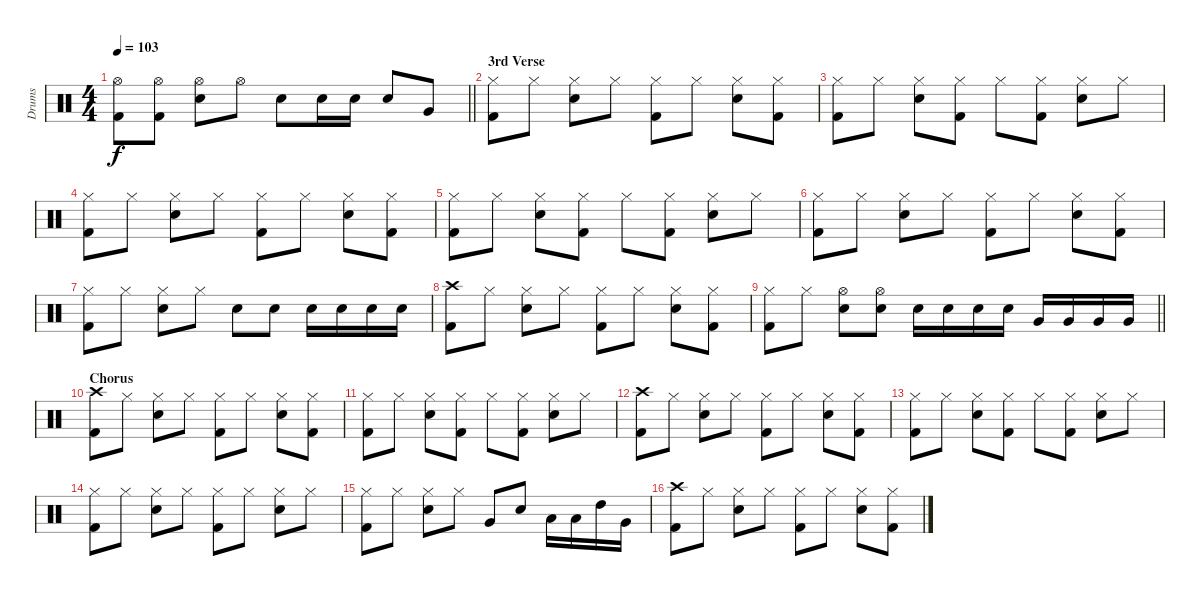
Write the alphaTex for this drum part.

\track ("Drums" "Drums") {instrument percussion}
\staff {score}
\articulation defaults
\ts (4 4)
\tempo 103
\clef neutral
\barLineRight lightlight
\ks c
("Hi-Hat (open)" "Kick (hit) 2").8{dy f} ("Hi-Hat (open)" "Kick (hit) 2").8 ("Hi-Hat (open)" "Snare (hit) 2").8 "Hi-Hat (open)".8 "Snare (hit) 2".8 "Snare (hit) 2".16 "Snare (hit) 2".16 "Snare (hit) 2".8 "Very Low Tom (hit)".8 |
\section ("" "3rd Verse")
("Hi-Hat (closed)" "Kick (hit) 2").8 "Hi-Hat (closed)".8 ("Hi-Hat (closed)" "Snare (hit) 2").8 "Hi-Hat (closed)".8 ("Hi-Hat (closed)" "Kick (hit) 2").8 "Hi-Hat (closed)".8 ("Hi-Hat (closed)" "Snare (hit) 2").8 ("Hi-Hat (closed)" "Kick (hit) 2").8 |
("Hi-Hat (closed)" "Kick (hit) 2").8 "Hi-Hat (closed)".8 ("Hi-Hat (closed)" "Snare (hit) 2").8 ("Hi-Hat (closed)" "Kick (hit) 2").8 "Hi-Hat (closed)".8 ("Hi-Hat (closed)" "Kick (hit) 2").8 ("Hi-Hat (closed)" "Snare (hit) 2").8 "Hi-Hat (closed)".8 |
("Hi-Hat (closed)" "Kick (hit) 2").8 "Hi-Hat (closed)".8 ("Hi-Hat (closed)" "Snare (hit) 2").8 "Hi-Hat (closed)".8 ("Hi-Hat (closed)" "Kick (hit) 2").8 "Hi-Hat (closed)".8 ("Hi-Hat (closed)" "Snare (hit) 2").8 ("Hi-Hat (closed)" "Kick (hit) 2").8 |
("Hi-Hat (closed)" "Kick (hit) 2").8 "Hi-Hat (closed)".8 ("Hi-Hat (closed)" "Snare (hit) 2").8 ("Hi-Hat (closed)" "Kick (hit) 2").8 "Hi-Hat (closed)".8 ("Hi-Hat (closed)" "Kick (hit) 2").8 ("Hi-Hat (closed)" "Snare (hit) 2").8 "Hi-Hat (closed)".8 |
("Hi-Hat (closed)" "Kick (hit) 2").8 "Hi-Hat (closed)".8 ("Hi-Hat (closed)" "Snare (hit) 2").8 "Hi-Hat (closed)".8 ("Hi-Hat (closed)" "Kick (hit) 2").8 "Hi-Hat (closed)".8 ("Hi-Hat (closed)" "Snare (hit) 2").8 ("Hi-Hat (closed)" "Kick (hit) 2").8 |
("Hi-Hat (closed)" "Kick (hit) 2").8 "Hi-Hat (closed)".8 ("Hi-Hat (closed)" "Snare (hit) 2").8 "Hi-Hat (closed)".8 "Snare (hit) 2".8 "Snare (hit) 2".8 "Snare (hit) 2".16 "Snare (hit) 2".16 "Snare (hit) 2".16 "Snare (hit) 2".16 |
("Crash high (hit)" "Kick (hit) 2").8 "Hi-Hat (closed)".8 ("Hi-Hat (closed)" "Snare (hit) 2").8 "Hi-Hat (closed)".8 ("Hi-Hat (closed)" "Kick (hit) 2").8 "Hi-Hat (closed)".8 ("Hi-Hat (closed)" "Snare (hit) 2").8 ("Hi-Hat (closed)" "Kick (hit) 2").8 |
\barLineRight lightlight
("Hi-Hat (closed)" "Kick (hit) 2").8 "Hi-Hat (closed)".8 ("Hi-Hat (open)" "Snare (hit) 2").8 ("Hi-Hat (open)" "Snare (hit) 2").8 "Snare (hit) 2".16 "Snare (hit) 2".16 "Snare (hit) 2".16 "Snare (hit) 2".16 "Very Low Tom (hit)".16 "Very Low Tom (hit)".16 "Very Low Tom (hit)".16 "Very Low Tom (hit)".16 |
\section ("" "Chorus")
("Crash high (hit)" "Kick (hit) 2").8 "Hi-Hat (closed)".8 ("Hi-Hat (closed)" "Snare (hit) 2").8 "Hi-Hat (closed)".8 ("Hi-Hat (closed)" "Kick (hit) 2").8 "Hi-Hat (closed)".8 ("Hi-Hat (closed)" "Snare (hit) 2").8 ("Hi-Hat (closed)" "Kick (hit) 2").8 |
("Hi-Hat (closed)" "Kick (hit) 2").8 "Hi-Hat (closed)".8 ("Hi-Hat (closed)" "Snare (hit) 2").8 ("Hi-Hat (closed)" "Kick (hit) 2").8 "Hi-Hat (closed)".8 ("Hi-Hat (closed)" "Kick (hit) 2").8 ("Hi-Hat (closed)" "Snare (hit) 2").8 "Hi-Hat (closed)".8 |
("Crash high (hit)" "Kick (hit) 2").8 "Hi-Hat (closed)".8 ("Hi-Hat (closed)" "Snare (hit) 2").8 "Hi-Hat (closed)".8 ("Hi-Hat (closed)" "Kick (hit) 2").8 "Hi-Hat (closed)".8 ("Hi-Hat (closed)" "Snare (hit) 2").8 ("Hi-Hat (closed)" "Kick (hit) 2").8 |
("Hi-Hat (closed)" "Kick (hit) 2").8 "Hi-Hat (closed)".8 ("Hi-Hat (closed)" "Snare (hit) 2").8 ("Hi-Hat (closed)" "Kick (hit) 2").8 "Hi-Hat (closed)".8 ("Hi-Hat (closed)" "Kick (hit) 2").8 ("Hi-Hat (closed)" "Snare (hit) 2").8 "Hi-Hat (closed)".8 |
("Hi-Hat (closed)" "Kick (hit) 2").8 "Hi-Hat (closed)".8 ("Hi-Hat (closed)" "Snare (hit) 2").8 "Hi-Hat (closed)".8 ("Hi-Hat (closed)" "Kick (hit) 2").8 "Hi-Hat (closed)".8 ("Hi-Hat (closed)" "Snare (hit) 2").8 "Hi-Hat (closed)".8 |
("Hi-Hat (closed)" "Kick (hit) 2").8 "Hi-Hat (closed)".8 ("Hi-Hat (closed)" "Snare (hit) 2").8 "Hi-Hat (closed)".8 "Very Low Tom (hit)".8 "Snare (hit) 2".8 "Low Tom (hit)".16 "Low Tom (hit)".16 "High Tom (hit)".16 "Very Low Tom (hit)".16 |
("Crash high (hit)" "Kick (hit) 2").8 "Hi-Hat (closed)".8 ("Hi-Hat (closed)" "Snare (hit) 2").8 "Hi-Hat (closed)".8 ("Hi-Hat (closed)" "Kick (hit) 2").8 "Hi-Hat (closed)".8 ("Hi-Hat (closed)" "Snare (hit) 2").8 ("Hi-Hat (closed)" "Kick (hit) 2").8
